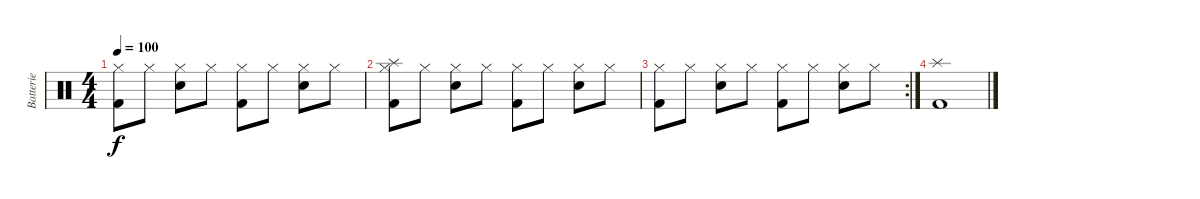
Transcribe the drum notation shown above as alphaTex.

\track ("Batterie" "Batterie") {instrument percussion}
\staff {score}
\articulation defaults
\ts (4 4)
\tempo 100
\clef neutral
\ks c
("Hi-Hat (closed)" "Kick (hit) 2").8{dy f} "Hi-Hat (closed)".8 ("Hi-Hat (closed)" "Snare (hit) 2").8 "Hi-Hat (closed)".8 ("Hi-Hat (closed)" "Kick (hit) 2").8 "Hi-Hat (closed)".8 ("Hi-Hat (closed)" "Snare (hit) 2").8 "Hi-Hat (closed)".8 |
("Splash (hit)" "Hi-Hat (closed)" "Kick (hit) 2").8 "Hi-Hat (closed)".8 ("Hi-Hat (closed)" "Snare (hit) 2").8 "Hi-Hat (closed)".8 ("Hi-Hat (closed)" "Kick (hit) 2").8 "Hi-Hat (closed)".8 ("Hi-Hat (closed)" "Snare (hit) 2").8 "Hi-Hat (closed)".8 |
\rc 2
("Hi-Hat (closed)" "Kick (hit) 2").8 "Hi-Hat (closed)".8 ("Hi-Hat (closed)" "Snare (hit) 2").8 "Hi-Hat (closed)".8 ("Hi-Hat (closed)" "Kick (hit) 2").8 "Hi-Hat (closed)".8 ("Hi-Hat (closed)" "Snare (hit) 2").8 "Hi-Hat (closed)".8 |
("Splash (hit)" "Kick (hit) 2").1
